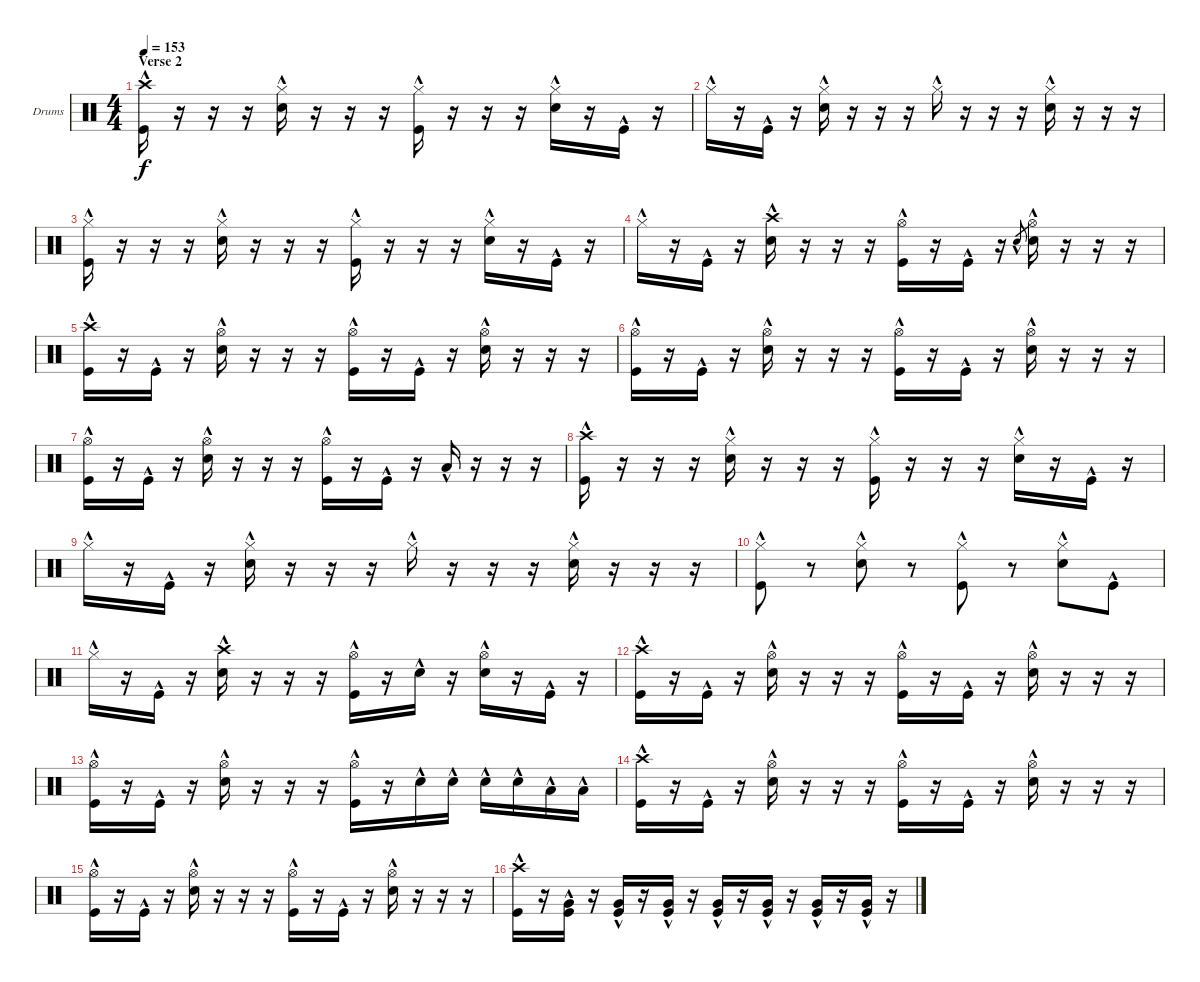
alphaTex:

\bracketExtendMode groupsimilarinstruments
\firstSystemTrackNameOrientation horizontal
\otherSystemsTrackNameOrientation horizontal
\track ("Drumkit" "Drums") {solo instrument percussion}
\staff {score}
\articulation defaults
\ts (4 4)
\section ("" "Verse 2")
\tempo 153
\clef neutral
\ks c
("Crash high (hit)"{hac} "Kick (hit)"{hac}).16{dy f} r.16 r.16 r.16 ("Hi-Hat (closed)"{hac} "Snare (hit) 2"{hac}).16 r.16 r.16 r.16 ("Hi-Hat (closed)"{hac} "Kick (hit)"{hac}).16 r.16 r.16 r.16 ("Hi-Hat (closed)"{hac} "Snare (hit) 2"{hac}).16 r.16 "Kick (hit)"{hac}.16 r.16 |
"Hi-Hat (closed)"{hac}.16 r.16 "Kick (hit)"{hac}.16 r.16 ("Hi-Hat (closed)"{hac} "Snare (hit) 2"{hac}).16 r.16 r.16 r.16 "Hi-Hat (closed)"{hac}.16 r.16 r.16 r.16 ("Hi-Hat (closed)"{hac} "Snare (hit) 2"{hac}).16 r.16 r.16 r.16 |
("Hi-Hat (closed)"{hac} "Kick (hit)"{hac}).16 r.16 r.16 r.16 ("Hi-Hat (closed)"{hac} "Snare (hit) 2"{hac}).16 r.16 r.16 r.16 ("Hi-Hat (closed)"{hac} "Kick (hit)"{hac}).16 r.16 r.16 r.16 ("Hi-Hat (closed)"{hac} "Snare (hit) 2"{hac}).16 r.16 "Kick (hit)"{hac}.16 r.16 |
"Hi-Hat (closed)"{hac}.16 r.16 "Kick (hit)"{hac}.16 r.16 ("Crash high (hit)"{hac} "Snare (hit) 2"{hac}).16 r.16 r.16 r.16 ("Hi-Hat (open)"{hac} "Kick (hit)"{hac}).16 r.16 "Kick (hit)"{hac}.16 r.16 "Snare (hit) 2"{hac}.8{gr} ("Hi-Hat (open)"{hac} "Snare (hit) 2"{hac}).16 r.16 r.16 r.16 |
("Crash high (hit)"{hac} "Kick (hit)"{hac}).16 r.16 "Kick (hit)"{hac}.16 r.16 ("Hi-Hat (open)"{hac} "Snare (hit) 2"{hac}).16 r.16 r.16 r.16 ("Hi-Hat (open)"{hac} "Kick (hit)"{hac}).16 r.16 "Kick (hit)"{hac}.16 r.16 ("Hi-Hat (open)"{hac} "Snare (hit) 2"{hac}).16 r.16 r.16 r.16 |
("Hi-Hat (open)"{hac} "Kick (hit)"{hac}).16 r.16 "Kick (hit)"{hac}.16 r.16 ("Hi-Hat (open)"{hac} "Snare (hit) 2"{hac}).16 r.16 r.16 r.16 ("Hi-Hat (open)"{hac} "Kick (hit)"{hac}).16 r.16 "Kick (hit)"{hac}.16 r.16 ("Hi-Hat (open)"{hac} "Snare (hit) 2"{hac}).16 r.16 r.16 r.16 |
("Hi-Hat (open)"{hac} "Kick (hit)"{hac}).16 r.16 "Kick (hit)"{hac}.16 r.16 ("Hi-Hat (open)"{hac} "Snare (hit) 2"{hac}).16 r.16 r.16 r.16 ("Hi-Hat (open)"{hac} "Kick (hit)"{hac}).16 r.16 "Kick (hit)"{hac}.16 r.16 "Low Tom (hit)"{hac}.16 r.16 r.16 r.16 |
("Crash high (hit)"{hac} "Kick (hit)"{hac}).16 r.16 r.16 r.16 ("Hi-Hat (closed)"{hac} "Snare (hit) 2"{hac}).16 r.16 r.16 r.16 ("Hi-Hat (closed)"{hac} "Kick (hit)"{hac}).16 r.16 r.16 r.16 ("Hi-Hat (closed)"{hac} "Snare (hit) 2"{hac}).16 r.16 "Kick (hit)"{hac}.16 r.16 |
"Hi-Hat (closed)"{hac}.16 r.16 "Kick (hit)"{hac}.16 r.16 ("Hi-Hat (closed)"{hac} "Snare (hit) 2"{hac}).16 r.16 r.16 r.16 "Hi-Hat (closed)"{hac}.16 r.16 r.16 r.16 ("Hi-Hat (closed)"{hac} "Snare (hit) 2"{hac}).16 r.16 r.16 r.16 |
("Hi-Hat (closed)"{hac} "Kick (hit)"{hac}).8 r.8 ("Hi-Hat (closed)"{hac} "Snare (hit) 2"{hac}).8 r.8 ("Hi-Hat (closed)"{hac} "Kick (hit)"{hac}).8 r.8 ("Hi-Hat (closed)"{hac} "Snare (hit) 2"{hac}).8 "Kick (hit)"{hac}.8 |
"Hi-Hat (closed)"{hac}.16 r.16 "Kick (hit)"{hac}.16 r.16 ("Crash high (hit)"{hac} "Snare (hit) 2"{hac}).16 r.16 r.16 r.16 ("Hi-Hat (open)"{hac} "Kick (hit)"{hac}).16 r.16 "Snare (hit) 2"{hac}.16 r.16 ("Hi-Hat (open)"{hac} "Snare (hit) 2"{hac}).16 r.16 "Kick (hit)"{hac}.16 r.16 |
("Crash high (hit)"{hac} "Kick (hit)"{hac}).16 r.16 "Kick (hit)"{hac}.16 r.16 ("Hi-Hat (open)"{hac} "Snare (hit) 2"{hac}).16 r.16 r.16 r.16 ("Hi-Hat (open)"{hac} "Kick (hit)"{hac}).16 r.16 "Kick (hit)"{hac}.16 r.16 ("Hi-Hat (open)"{hac} "Snare (hit) 2"{hac}).16 r.16 r.16 r.16 |
("Hi-Hat (open)"{hac} "Kick (hit)"{hac}).16 r.16 "Kick (hit)"{hac}.16 r.16 ("Hi-Hat (open)"{hac} "Snare (hit) 2"{hac}).16 r.16 r.16 r.16 ("Hi-Hat (open)"{hac} "Kick (hit)"{hac}).16 r.16 "Snare (hit) 2"{hac}.16 "Snare (hit) 2"{hac}.16 "Snare (hit) 2"{hac}.16 "Snare (hit) 2"{hac}.16 "Low Tom (hit)"{hac}.16 "Low Tom (hit)"{hac}.16 |
("Crash high (hit)"{hac} "Kick (hit)"{hac}).16 r.16 "Kick (hit)"{hac}.16 r.16 ("Hi-Hat (open)"{hac} "Snare (hit) 2"{hac}).16 r.16 r.16 r.16 ("Hi-Hat (open)"{hac} "Kick (hit)"{hac}).16 r.16 "Kick (hit)"{hac}.16 r.16 ("Hi-Hat (open)"{hac} "Snare (hit) 2"{hac}).16 r.16 r.16 r.16 |
("Hi-Hat (open)"{hac} "Kick (hit)"{hac}).16 r.16 "Kick (hit)"{hac}.16 r.16 ("Hi-Hat (open)"{hac} "Snare (hit) 2"{hac}).16 r.16 r.16 r.16 ("Hi-Hat (open)"{hac} "Kick (hit)"{hac}).16 r.16 "Kick (hit)"{hac}.16 r.16 ("Hi-Hat (open)"{hac} "Snare (hit) 2"{hac}).16 r.16 r.16 r.16 |
("Crash high (hit)"{hac} "Kick (hit)"{hac}).16 r.16 ("Very Low Tom (hit)"{hac} "Kick (hit)"{hac}).16 r.16 ("Very Low Tom (hit)"{hac} "Kick (hit)"{hac}).16 r.16 ("Very Low Tom (hit)"{hac} "Kick (hit)"{hac}).16 r.16 ("Very Low Tom (hit)"{hac} "Kick (hit)"{hac}).16 r.16 ("Very Low Tom (hit)"{hac} "Kick (hit)"{hac}).16 r.16 ("Very Low Tom (hit)"{hac} "Kick (hit)"{hac}).16 r.16 ("Very Low Tom (hit)"{hac} "Kick (hit)"{hac}).16 r.16
